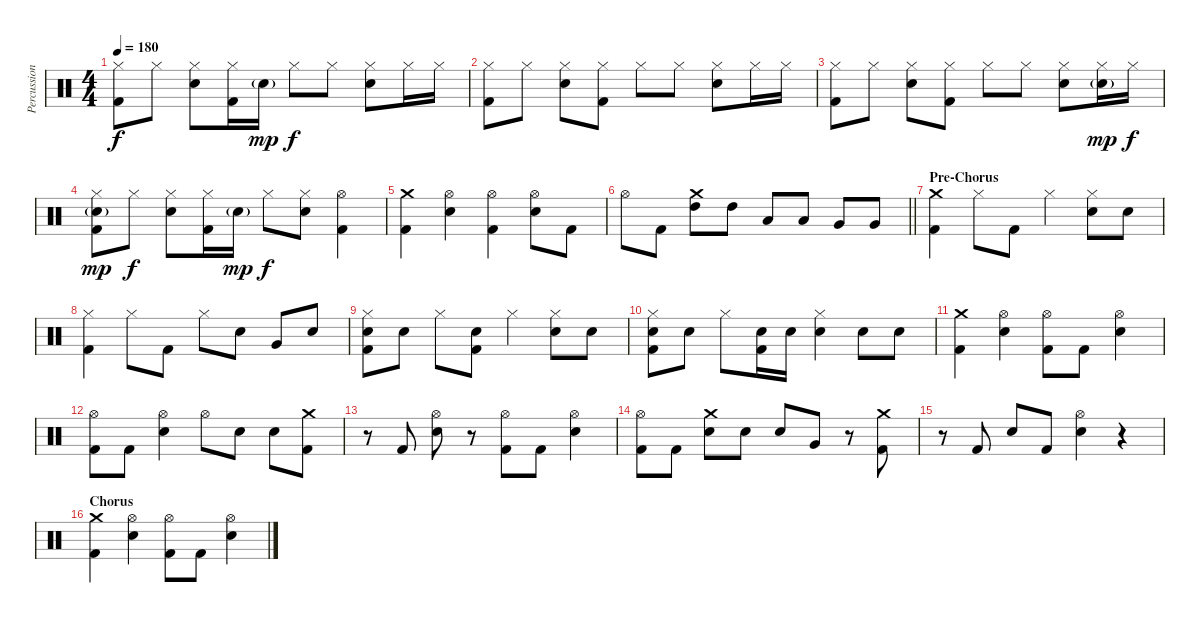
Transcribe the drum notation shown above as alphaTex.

\track ("Percussion" "Percussion") {instrument percussion}
\staff {score}
\articulation defaults
\ts (4 4)
\tempo 180
\clef neutral
\ks c
("Hi-Hat (closed)" "Kick (hit) 2").8{dy f} "Hi-Hat (closed)".8 ("Hi-Hat (closed)" "Snare (hit) 2").8 ("Hi-Hat (closed)" "Kick (hit) 2").16 "Snare (hit) 2"{g}.16{dy mp} "Hi-Hat (closed)".8{dy f} "Hi-Hat (closed)".8 ("Hi-Hat (closed)" "Snare (hit) 2").8 "Hi-Hat (closed)".16 "Hi-Hat (closed)".16 |
("Hi-Hat (closed)" "Kick (hit) 2").8 "Hi-Hat (closed)".8 ("Hi-Hat (closed)" "Snare (hit) 2").8 ("Hi-Hat (closed)" "Kick (hit) 2").8 "Hi-Hat (closed)".8 "Hi-Hat (closed)".8 ("Hi-Hat (closed)" "Snare (hit) 2").8 "Hi-Hat (closed)".16 "Hi-Hat (closed)".16 |
("Hi-Hat (closed)" "Kick (hit) 2").8 "Hi-Hat (closed)".8 ("Hi-Hat (closed)" "Snare (hit) 2").8 ("Hi-Hat (closed)" "Kick (hit) 2").8 "Hi-Hat (closed)".8 "Hi-Hat (closed)".8 ("Hi-Hat (closed)" "Snare (hit) 2").8 ("Hi-Hat (closed)" "Snare (hit) 2"{g}).16{dy mp} "Hi-Hat (closed)".16{dy f} |
("Hi-Hat (closed)" "Snare (hit) 2"{g} "Kick (hit) 2").8{dy mp} "Hi-Hat (closed)".8{dy f} ("Hi-Hat (closed)" "Snare (hit) 2").8 ("Hi-Hat (closed)" "Kick (hit) 2").16 "Snare (hit) 2"{g}.16{dy mp} "Hi-Hat (closed)".8{dy f} ("Hi-Hat (closed)" "Snare (hit) 2").8 ("Hi-Hat (open)" "Kick (hit) 2").4 |
("Crash medium (hit)" "Kick (hit) 2").4 ("Hi-Hat (open)" "Snare (hit) 2").4 ("Hi-Hat (open)" "Kick (hit) 2").4 ("Hi-Hat (open)" "Snare (hit) 2").8 "Kick (hit) 2".8 |
\barLineRight lightlight "Hi-Hat (open)".8 "Kick (hit) 2".8
("Crash medium (hit)" "High Tom (hit)").8 "High Tom (hit)".8 "Low Tom (hit)".8 "Low Tom (hit)".8 "Very Low Tom (hit)".8 "Very Low Tom (hit)".8 |
\section ("" "Pre-Chorus")
("Crash medium (hit)" "Kick (hit) 2").4 "Hi-Hat (closed)".8 "Kick (hit) 2".8 "Hi-Hat (closed)".4 ("Hi-Hat (closed)" "Snare (hit) 2").8 "Snare (hit) 2".8 |
("Hi-Hat (closed)" "Kick (hit) 2").4 "Hi-Hat (closed)".8 "Kick (hit) 2".8 "Hi-Hat (closed)".8 "Snare (hit) 2".8 "Very Low Tom (hit)".8 "Snare (hit) 2".8 |
("Hi-Hat (closed)" "Snare (hit) 2" "Kick (hit) 2").8 "Snare (hit) 2".8 "Hi-Hat (closed)".8 ("Snare (hit) 2" "Kick (hit) 2").8 "Hi-Hat (closed)".4 ("Hi-Hat (closed)" "Snare (hit) 2").8 "Snare (hit) 2".8 |
("Hi-Hat (closed)" "Snare (hit) 2" "Kick (hit) 2").8 "Snare (hit) 2".8 "Hi-Hat (closed)".8 ("Snare (hit) 2" "Kick (hit) 2").16 "Snare (hit) 2".16 ("Hi-Hat (closed)" "Snare (hit) 2").4 "Snare (hit) 2".8 "Snare (hit) 2".8 |
("Crash medium (hit)" "Kick (hit) 2").4 ("Hi-Hat (open)" "Snare (hit) 2").4 ("Hi-Hat (open)" "Kick (hit) 2").8 "Kick (hit) 2".8 ("Hi-Hat (open)" "Snare (hit) 2").4 |
("Hi-Hat (open)" "Kick (hit) 2").8 "Kick (hit) 2".8 ("Hi-Hat (open)" "Snare (hit) 2").4 "Hi-Hat (open)".8 "Snare (hit) 2".8 "Snare (hit) 2".8 ("Crash medium (hit)" "Kick (hit) 2").8 |
r.8 "Kick (hit) 2".8 ("Hi-Hat (open)" "Snare (hit) 2").8 r.8 ("Hi-Hat (open)" "Kick (hit) 2").8 "Kick (hit) 2".8 ("Hi-Hat (open)" "Snare (hit) 2").4 |
("Hi-Hat (open)" "Kick (hit) 2").8 "Kick (hit) 2".8 ("Crash medium (hit)" "Snare (hit) 2").8 "Snare (hit) 2".8 "Snare (hit) 2".8 "Very Low Tom (hit)".8 r.8 ("Crash medium (hit)" "Kick (hit) 2").8 |
r.8 "Kick (hit) 2".8 "Snare (hit) 2".8 "Kick (hit) 2".8 ("Hi-Hat (open)" "Snare (hit) 2").4 r.4 |
\section ("" "Chorus")
("Crash medium (hit)" "Kick (hit) 2").4 ("Hi-Hat (open)" "Snare (hit) 2").4 ("Hi-Hat (open)" "Kick (hit) 2").8 "Kick (hit) 2".8 ("Hi-Hat (open)" "Snare (hit) 2").4
